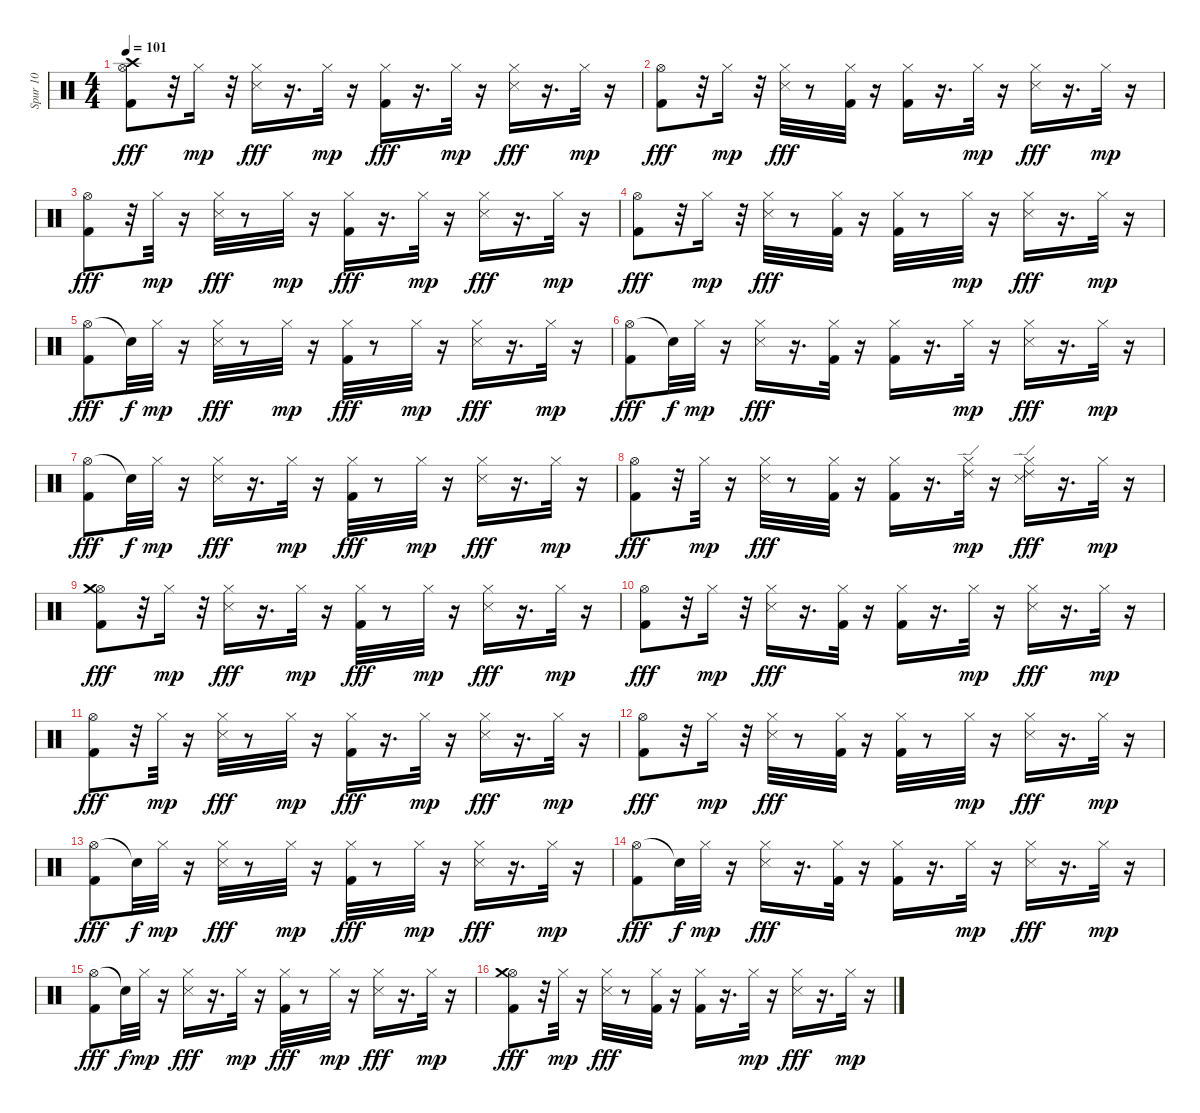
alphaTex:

\track ("Spur 10" "Spur 10") {instrument percussion}
\staff {score}
\articulation defaults
\ts (4 4)
\tempo 101
\clef neutral
\ks c
("Crash high (hit)" "Hi-Hat (open)" "Kick (hit) 2").8{dy fff} r.32 "Hi-Hat (closed)".16{dy mp} r.32 ("Hi-Hat (closed)" "Snare (side stick) 3").16{dy fff} r.16{d} "Hi-Hat (closed)".32{dy mp} r.16 ("Hi-Hat (closed)" "Kick (hit) 2").16{dy fff} r.16{d} "Hi-Hat (closed)".32{dy mp} r.16 ("Hi-Hat (closed)" "Snare (side stick) 3").16{dy fff} r.16{d} "Hi-Hat (closed)".32{dy mp} r.16 |
("Hi-Hat (open)" "Kick (hit) 2").8{dy fff} r.32 "Hi-Hat (closed)".16{dy mp} r.32 ("Hi-Hat (closed)" "Snare (side stick) 3").32{dy fff} r.8 ("Hi-Hat (closed)" "Kick (hit) 2").32 r.16 ("Hi-Hat (closed)" "Kick (hit) 2").16 r.16{d} "Hi-Hat (closed)".32{dy mp} r.16 ("Hi-Hat (closed)" "Snare (side stick) 3").16{dy fff} r.16{d} "Hi-Hat (closed)".32{dy mp} r.16 |
("Hi-Hat (open)" "Kick (hit) 2").8{dy fff} r.32 "Hi-Hat (closed)".32{dy mp} r.16 ("Hi-Hat (closed)" "Snare (side stick) 3").32{dy fff} r.8 "Hi-Hat (closed)".32{dy mp} r.16 ("Hi-Hat (closed)" "Kick (hit) 2").16{dy fff} r.16{d} "Hi-Hat (closed)".32{dy mp} r.16 ("Hi-Hat (closed)" "Snare (side stick) 3").16{dy fff} r.16{d} "Hi-Hat (closed)".32{dy mp} r.16 |
("Hi-Hat (open)" "Kick (hit) 2").8{dy fff} r.32 "Hi-Hat (closed)".16{dy mp} r.32 ("Hi-Hat (closed)" "Snare (side stick) 3").32{dy fff} r.8 ("Hi-Hat (closed)" "Kick (hit) 2").32 r.16 ("Hi-Hat (closed)" "Kick (hit) 2").32 r.8 "Hi-Hat (closed)".32{dy mp} r.16 ("Hi-Hat (closed)" "Snare (side stick) 3").16{dy fff} r.16{d} "Hi-Hat (closed)".32{dy mp} r.16 |
("Hi-Hat (open)" "Kick (hit) 2").8{dy fff} "Snare (hit)"{t}.32{dy f} "Hi-Hat (closed)".32{dy mp} r.16 ("Hi-Hat (closed)" "Snare (side stick) 3").32{dy fff} r.8 "Hi-Hat (closed)".32{dy mp} r.16 ("Hi-Hat (closed)" "Kick (hit) 2").32{dy fff} r.8 "Hi-Hat (closed)".32{dy mp} r.16 ("Hi-Hat (closed)" "Snare (side stick) 3").16{dy fff} r.16{d} "Hi-Hat (closed)".32{dy mp} r.16 |
("Hi-Hat (open)" "Kick (hit) 2").8{dy fff} "Snare (hit)"{t}.32{dy f} "Hi-Hat (closed)".32{dy mp} r.16 ("Hi-Hat (closed)" "Snare (side stick) 3").16{dy fff} r.16{d} ("Hi-Hat (closed)" "Kick (hit) 2").32 r.16 ("Hi-Hat (closed)" "Kick (hit) 2").16 r.16{d} "Hi-Hat (closed)".32{dy mp} r.16 ("Hi-Hat (closed)" "Snare (side stick) 3").16{dy fff} r.16{d} "Hi-Hat (closed)".32{dy mp} r.16 |
("Hi-Hat (open)" "Kick (hit) 2").8{dy fff} "Snare (hit)"{t}.32{dy f} "Hi-Hat (closed)".32{dy mp} r.16 ("Hi-Hat (closed)" "Snare (side stick) 3").16{dy fff} r.16{d} "Hi-Hat (closed)".32{dy mp} r.16 ("Hi-Hat (closed)" "Kick (hit) 2").32{dy fff} r.8 "Hi-Hat (closed)".32{dy mp} r.16 ("Hi-Hat (closed)" "Snare (side stick) 3").16{dy fff} r.16{d} "Hi-Hat (closed)".32{dy mp} r.16 |
("Hi-Hat (open)" "Kick (hit) 2").8{dy fff} r.32 "Hi-Hat (closed)".32{dy mp} r.16 ("Hi-Hat (closed)" "Snare (side stick) 3").32{dy fff} r.8 ("Hi-Hat (closed)" "Kick (hit) 2").32 r.16 ("Hi-Hat (closed)" "Kick (hit) 2").16 r.16{d} ("Hi-Hat (closed)" "Ride (edge) 2").32{dy mp} r.16 ("Hi-Hat (closed)" "Snare (side stick) 3" "Ride (edge) 2").16{dy fff} r.16{d} "Hi-Hat (closed)".32{dy mp} r.16 |
("Hi-Hat (open)" "Kick (hit) 2" "Crash medium (hit)").8{dy fff} r.32 "Hi-Hat (closed)".16{dy mp} r.32 ("Hi-Hat (closed)" "Snare (side stick) 3").16{dy fff} r.16{d} "Hi-Hat (closed)".32{dy mp} r.16 ("Hi-Hat (closed)" "Kick (hit) 2").32{dy fff} r.8 "Hi-Hat (closed)".32{dy mp} r.16 ("Hi-Hat (closed)" "Snare (side stick) 3").16{dy fff} r.16{d} "Hi-Hat (closed)".32{dy mp} r.16 |
("Hi-Hat (open)" "Kick (hit) 2").8{dy fff} r.32 "Hi-Hat (closed)".16{dy mp} r.32 ("Hi-Hat (closed)" "Snare (side stick) 3").16{dy fff} r.16{d} ("Hi-Hat (closed)" "Kick (hit) 2").32 r.16 ("Hi-Hat (closed)" "Kick (hit) 2").16 r.16{d} "Hi-Hat (closed)".32{dy mp} r.16 ("Hi-Hat (closed)" "Snare (side stick) 3").16{dy fff} r.16{d} "Hi-Hat (closed)".32{dy mp} r.16 |
("Hi-Hat (open)" "Kick (hit) 2").8{dy fff} r.32 "Hi-Hat (closed)".32{dy mp} r.16 ("Hi-Hat (closed)" "Snare (side stick) 3").32{dy fff} r.8 "Hi-Hat (closed)".32{dy mp} r.16 ("Hi-Hat (closed)" "Kick (hit) 2").16{dy fff} r.16{d} "Hi-Hat (closed)".32{dy mp} r.16 ("Hi-Hat (closed)" "Snare (side stick) 3").16{dy fff} r.16{d} "Hi-Hat (closed)".32{dy mp} r.16 |
("Hi-Hat (open)" "Kick (hit) 2").8{dy fff} r.32 "Hi-Hat (closed)".16{dy mp} r.32 ("Hi-Hat (closed)" "Snare (side stick) 3").32{dy fff} r.8 ("Hi-Hat (closed)" "Kick (hit) 2").32 r.16 ("Hi-Hat (closed)" "Kick (hit) 2").32 r.8 "Hi-Hat (closed)".32{dy mp} r.16 ("Hi-Hat (closed)" "Snare (side stick) 3").16{dy fff} r.16{d} "Hi-Hat (closed)".32{dy mp} r.16 |
("Hi-Hat (open)" "Kick (hit) 2").8{dy fff} "Snare (hit)"{t}.32{dy f} "Hi-Hat (closed)".32{dy mp} r.16 ("Hi-Hat (closed)" "Snare (side stick) 3").32{dy fff} r.8 "Hi-Hat (closed)".32{dy mp} r.16 ("Hi-Hat (closed)" "Kick (hit) 2").32{dy fff} r.8 "Hi-Hat (closed)".32{dy mp} r.16 ("Hi-Hat (closed)" "Snare (side stick) 3").16{dy fff} r.16{d} "Hi-Hat (closed)".32{dy mp} r.16 |
("Hi-Hat (open)" "Kick (hit) 2").8{dy fff} "Snare (hit)"{t}.32{dy f} "Hi-Hat (closed)".32{dy mp} r.16 ("Hi-Hat (closed)" "Snare (side stick) 3").16{dy fff} r.16{d} ("Hi-Hat (closed)" "Kick (hit) 2").32 r.16 ("Hi-Hat (closed)" "Kick (hit) 2").16 r.16{d} "Hi-Hat (closed)".32{dy mp} r.16 ("Hi-Hat (closed)" "Snare (side stick) 3").16{dy fff} r.16{d} "Hi-Hat (closed)".32{dy mp} r.16 |
("Hi-Hat (open)" "Kick (hit) 2").8{dy fff} "Snare (hit)"{t}.32{dy f} "Hi-Hat (closed)".32{dy mp} r.16 ("Hi-Hat (closed)" "Snare (side stick) 3").16{dy fff} r.16{d} "Hi-Hat (closed)".32{dy mp} r.16 ("Hi-Hat (closed)" "Kick (hit) 2").32{dy fff} r.8 "Hi-Hat (closed)".32{dy mp} r.16 ("Hi-Hat (closed)" "Snare (side stick) 3").16{dy fff} r.16{d} "Hi-Hat (closed)".32{dy mp} r.16 |
("Hi-Hat (open)" "Kick (hit) 2" "Crash medium (hit)").8{dy fff} r.32 "Hi-Hat (closed)".32{dy mp} r.16 ("Hi-Hat (closed)" "Snare (side stick) 3").32{dy fff} r.8 ("Hi-Hat (closed)" "Kick (hit) 2").32 r.16 ("Hi-Hat (closed)" "Kick (hit) 2").16 r.16{d} "Hi-Hat (closed)".32{dy mp} r.16 ("Hi-Hat (closed)" "Snare (side stick) 3").16{dy fff} r.16{d} "Hi-Hat (closed)".32{dy mp} r.16
